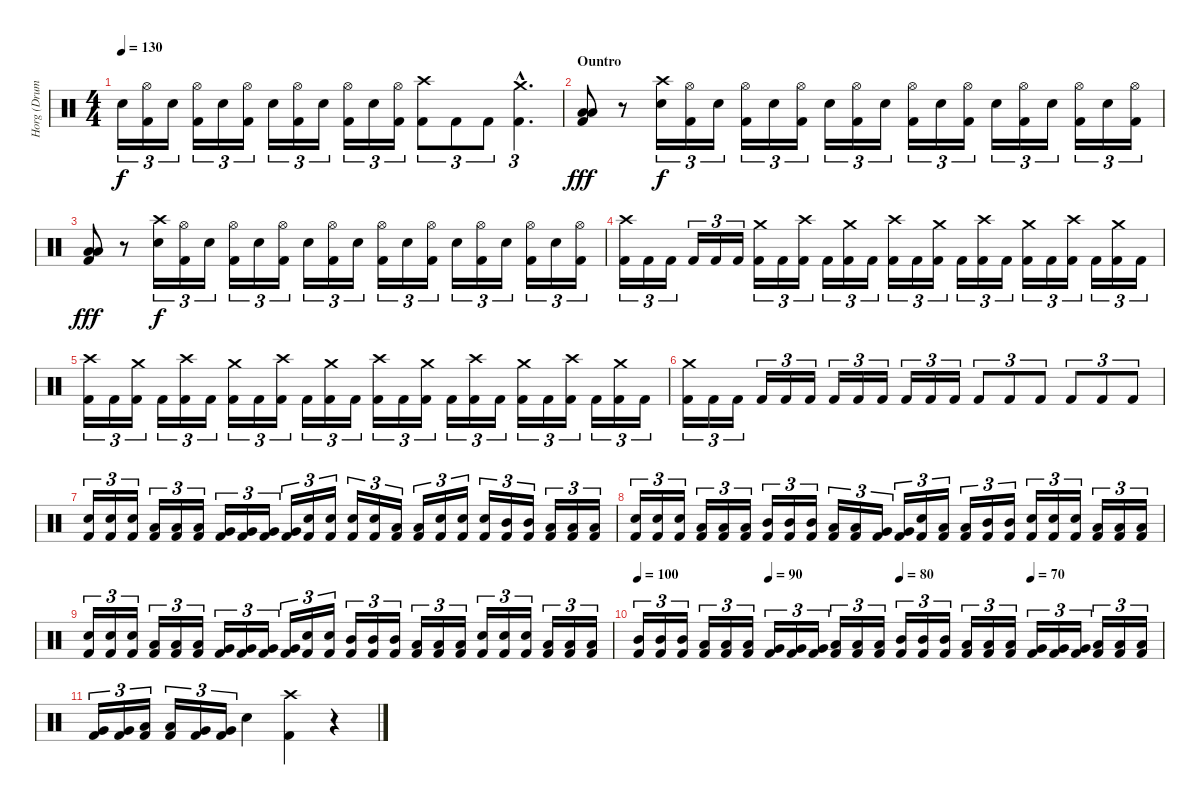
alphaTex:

\track ("Horg (Drums)" "Horg (Drum") {instrument percussion}
\staff {score}
\articulation defaults
\ts (4 4)
\tempo 130
\clef neutral
\ks c "Electric Snare (hit)".16{tu (3 2) dy f}
("Hi-Hat (open)" "Kick (hit) 2").16{tu (3 2)} "Electric Snare (hit)".16{tu (3 2)} ("Hi-Hat (open)" "Kick (hit) 2").16{tu (3 2)} "Electric Snare (hit)".16{tu (3 2)} ("Hi-Hat (open)" "Kick (hit) 2").16{tu (3 2)} "Electric Snare (hit)".16{tu (3 2)} ("Hi-Hat (open)" "Kick (hit) 2").16{tu (3 2)} "Electric Snare (hit)".16{tu (3 2)} ("Hi-Hat (open)" "Kick (hit) 2").16{tu (3 2)} "Electric Snare (hit)".16{tu (3 2)} ("Hi-Hat (open)" "Kick (hit) 2").16{tu (3 2)} ("Crash high (hit)" "Kick (hit) 2").8{tu (3 2)} "Kick (hit) 2".8{tu (3 2)} "Kick (hit) 2".8{tu (3 2)} ("Crash medium (hit)"{hac} "Kick (hit) 2"{hac}).4{d tu (3 2)} |
\section ("" "Ountro")
("Low Floor Tom (hit)" "Low Floor Tom (hit)" "Kick (hit) 2").8{dy fff} r.8 ("Crash high (hit)" "Electric Snare (hit)").16{tu (3 2) dy f} ("Hi-Hat (open)" "Kick (hit) 2").16{tu (3 2)} "Electric Snare (hit)".16{tu (3 2)} ("Hi-Hat (open)" "Kick (hit) 2").16{tu (3 2)} "Electric Snare (hit)".16{tu (3 2)} ("Hi-Hat (open)" "Kick (hit) 2").16{tu (3 2)} "Electric Snare (hit)".16{tu (3 2)} ("Hi-Hat (open)" "Kick (hit) 2").16{tu (3 2)} "Electric Snare (hit)".16{tu (3 2)} ("Hi-Hat (open)" "Kick (hit) 2").16{tu (3 2)} "Electric Snare (hit)".16{tu (3 2)} ("Hi-Hat (open)" "Kick (hit) 2").16{tu (3 2)} "Electric Snare (hit)".16{tu (3 2)} ("Hi-Hat (open)" "Kick (hit) 2").16{tu (3 2)} "Electric Snare (hit)".16{tu (3 2)} ("Hi-Hat (open)" "Kick (hit) 2").16{tu (3 2)} "Electric Snare (hit)".16{tu (3 2)} ("Hi-Hat (open)" "Kick (hit) 2").16{tu (3 2)} |
("Low Floor Tom (hit)" "Low Floor Tom (hit)" "Kick (hit) 2").8{dy fff} r.8 ("Crash high (hit)" "Electric Snare (hit)").16{tu (3 2) dy f} ("Hi-Hat (open)" "Kick (hit) 2").16{tu (3 2)} "Electric Snare (hit)".16{tu (3 2)} ("Hi-Hat (open)" "Kick (hit) 2").16{tu (3 2)} "Electric Snare (hit)".16{tu (3 2)} ("Hi-Hat (open)" "Kick (hit) 2").16{tu (3 2)} "Electric Snare (hit)".16{tu (3 2)} ("Hi-Hat (open)" "Kick (hit) 2").16{tu (3 2)} "Electric Snare (hit)".16{tu (3 2)} ("Hi-Hat (open)" "Kick (hit) 2").16{tu (3 2)} "Electric Snare (hit)".16{tu (3 2)} ("Hi-Hat (open)" "Kick (hit) 2").16{tu (3 2)} "Electric Snare (hit)".16{tu (3 2)} ("Hi-Hat (open)" "Kick (hit) 2").16{tu (3 2)} "Electric Snare (hit)".16{tu (3 2)} ("Hi-Hat (open)" "Kick (hit) 2").16{tu (3 2)} "Electric Snare (hit)".16{tu (3 2)} ("Hi-Hat (open)" "Kick (hit) 2").16{tu (3 2)} |
("Crash high (hit)" "Kick (hit) 2").16{tu (3 2)} "Kick (hit) 2".16{tu (3 2)} "Kick (hit) 2".16{tu (3 2)} "Kick (hit) 2".16{tu (3 2)} "Kick (hit) 2".16{tu (3 2)} "Kick (hit) 2".16{tu (3 2)} ("Crash medium (hit)" "Kick (hit) 2").16{tu (3 2)} "Kick (hit) 2".16{tu (3 2)} ("Crash high (hit)" "Kick (hit) 2").16{tu (3 2)} "Kick (hit) 2".16{tu (3 2)} ("Crash medium (hit)" "Kick (hit) 2").16{tu (3 2)} "Kick (hit) 2".16{tu (3 2)} ("Crash high (hit)" "Kick (hit) 2").16{tu (3 2)} "Kick (hit) 2".16{tu (3 2)} ("Crash medium (hit)" "Kick (hit) 2").16{tu (3 2)} "Kick (hit) 2".16{tu (3 2)} ("Crash high (hit)" "Kick (hit) 2").16{tu (3 2)} "Kick (hit) 2".16{tu (3 2)} ("Crash medium (hit)" "Kick (hit) 2").16{tu (3 2)} "Kick (hit) 2".16{tu (3 2)} ("Crash high (hit)" "Kick (hit) 2").16{tu (3 2)} "Kick (hit) 2".16{tu (3 2)} ("Crash medium (hit)" "Kick (hit) 2").16{tu (3 2)} "Kick (hit) 2".16{tu (3 2)} |
("Crash high (hit)" "Kick (hit) 2").16{tu (3 2)} "Kick (hit) 2".16{tu (3 2)} ("Crash medium (hit)" "Kick (hit) 2").16{tu (3 2)} "Kick (hit) 2".16{tu (3 2)} ("Crash high (hit)" "Kick (hit) 2").16{tu (3 2)} "Kick (hit) 2".16{tu (3 2)} ("Crash medium (hit)" "Kick (hit) 2").16{tu (3 2)} "Kick (hit) 2".16{tu (3 2)} ("Crash high (hit)" "Kick (hit) 2").16{tu (3 2)} "Kick (hit) 2".16{tu (3 2)} ("Crash medium (hit)" "Kick (hit) 2").16{tu (3 2)} "Kick (hit) 2".16{tu (3 2)} ("Crash high (hit)" "Kick (hit) 2").16{tu (3 2)} "Kick (hit) 2".16{tu (3 2)} ("Crash medium (hit)" "Kick (hit) 2").16{tu (3 2)} "Kick (hit) 2".16{tu (3 2)} ("Crash high (hit)" "Kick (hit) 2").16{tu (3 2)} "Kick (hit) 2".16{tu (3 2)} ("Crash medium (hit)" "Kick (hit) 2").16{tu (3 2)} "Kick (hit) 2".16{tu (3 2)} ("Crash high (hit)" "Kick (hit) 2").16{tu (3 2)} "Kick (hit) 2".16{tu (3 2)} ("Crash medium (hit)" "Kick (hit) 2").16{tu (3 2)} "Kick (hit) 2".16{tu (3 2)} |
("Crash medium (hit)" "Kick (hit) 2").16{tu (3 2)} "Kick (hit) 2".16{tu (3 2)} "Kick (hit) 2".16{tu (3 2)} "Kick (hit) 2".16{tu (3 2)} "Kick (hit) 2".16{tu (3 2)} "Kick (hit) 2".16{tu (3 2)} "Kick (hit) 2".16{tu (3 2)} "Kick (hit) 2".16{tu (3 2)} "Kick (hit) 2".16{tu (3 2)} "Kick (hit) 2".16{tu (3 2)} "Kick (hit) 2".16{tu (3 2)} "Kick (hit) 2".16{tu (3 2)} "Kick (hit) 2".8{tu (3 2)} "Kick (hit) 2".8{tu (3 2)} "Kick (hit) 2".8{tu (3 2)} "Kick (hit) 2".8{tu (3 2)} "Kick (hit) 2".8{tu (3 2)} "Kick (hit) 2".8{tu (3 2)} |
("Electric Snare (hit)" "Kick (hit) 2").16{tu (3 2)} ("Electric Snare (hit)" "Kick (hit) 2").16{tu (3 2)} ("Electric Snare (hit)" "Kick (hit) 2").16{tu (3 2)} ("Low Tom (hit)" "Kick (hit) 2").16{tu (3 2)} ("Low Tom (hit)" "Kick (hit) 2").16{tu (3 2)} ("Low Tom (hit)" "Kick (hit) 2").16{tu (3 2)} ("Very Low Tom (hit)" "Kick (hit) 2").16{tu (3 2)} ("Very Low Tom (hit)" "Kick (hit) 2").16{tu (3 2)} ("Very Low Tom (hit)" "Kick (hit) 2").16{tu (3 2)} ("Very Low Tom (hit)" "Kick (hit) 2").16{tu (3 2)} ("Electric Snare (hit)" "Kick (hit) 2").16{tu (3 2)} ("Electric Snare (hit)" "Kick (hit) 2").16{tu (3 2)} ("Electric Snare (hit)" "Kick (hit) 2").16{tu (3 2)} ("Electric Snare (hit)" "Kick (hit) 2").16{tu (3 2)} ("Low Tom (hit)" "Kick (hit) 2").16{tu (3 2)} ("Low Tom (hit)" "Kick (hit) 2").16{tu (3 2)} ("Electric Snare (hit)" "Kick (hit) 2").16{tu (3 2)} ("Electric Snare (hit)" "Kick (hit) 2").16{tu (3 2)} ("Electric Snare (hit)" "Kick (hit) 2").16{tu (3 2)} ("Mid Tom (hit)" "Kick (hit) 2").16{tu (3 2)} ("Mid Tom (hit)" "Kick (hit) 2").16{tu (3 2)} ("Low Tom (hit)" "Kick (hit) 2").16{tu (3 2)} ("Low Tom (hit)" "Kick (hit) 2").16{tu (3 2)} ("Low Tom (hit)" "Kick (hit) 2").16{tu (3 2)} |
("Electric Snare (hit)" "Kick (hit) 2").16{tu (3 2)} ("Electric Snare (hit)" "Kick (hit) 2").16{tu (3 2)} ("Electric Snare (hit)" "Kick (hit) 2").16{tu (3 2)} ("Low Tom (hit)" "Kick (hit) 2").16{tu (3 2)} ("Low Tom (hit)" "Kick (hit) 2").16{tu (3 2)} ("Low Tom (hit)" "Kick (hit) 2").16{tu (3 2)} ("Mid Tom (hit)" "Kick (hit) 2").16{tu (3 2)} ("Mid Tom (hit)" "Kick (hit) 2").16{tu (3 2)} ("Mid Tom (hit)" "Kick (hit) 2").16{tu (3 2)} ("Low Tom (hit)" "Kick (hit) 2").16{tu (3 2)} ("Low Tom (hit)" "Kick (hit) 2").16{tu (3 2)} ("Very Low Tom (hit)" "Kick (hit) 2").16{tu (3 2)} ("Very Low Tom (hit)" "Kick (hit) 2").16{tu (3 2)} ("Electric Snare (hit)" "Kick (hit) 2").16{tu (3 2)} ("Low Tom (hit)" "Kick (hit) 2").16{tu (3 2)} ("Low Tom (hit)" "Kick (hit) 2").16{tu (3 2)} ("Mid Tom (hit)" "Kick (hit) 2").16{tu (3 2)} ("Mid Tom (hit)" "Kick (hit) 2").16{tu (3 2)} ("Electric Snare (hit)" "Kick (hit) 2").16{tu (3 2)} ("Electric Snare (hit)" "Kick (hit) 2").16{tu (3 2)} ("Electric Snare (hit)" "Kick (hit) 2").16{tu (3 2)} ("Low Tom (hit)" "Kick (hit) 2").16{tu (3 2)} ("Low Tom (hit)" "Kick (hit) 2").16{tu (3 2)} ("Low Tom (hit)" "Kick (hit) 2").16{tu (3 2)} |
("Electric Snare (hit)" "Kick (hit) 2").16{tu (3 2)} ("Electric Snare (hit)" "Kick (hit) 2").16{tu (3 2)} ("Electric Snare (hit)" "Kick (hit) 2").16{tu (3 2)} ("Low Tom (hit)" "Kick (hit) 2").16{tu (3 2)} ("Low Tom (hit)" "Kick (hit) 2").16{tu (3 2)} ("Low Tom (hit)" "Kick (hit) 2").16{tu (3 2)} ("Very Low Tom (hit)" "Kick (hit) 2").16{tu (3 2)} ("Very Low Tom (hit)" "Kick (hit) 2").16{tu (3 2)} ("Very Low Tom (hit)" "Kick (hit) 2").16{tu (3 2)} ("Very Low Tom (hit)" "Kick (hit) 2").16{tu (3 2)} ("Electric Snare (hit)" "Kick (hit) 2").16{tu (3 2)} ("Electric Snare (hit)" "Kick (hit) 2").16{tu (3 2)} ("Mid Tom (hit)" "Kick (hit) 2").16{tu (3 2)} ("Mid Tom (hit)" "Kick (hit) 2").16{tu (3 2)} ("Mid Tom (hit)" "Kick (hit) 2").16{tu (3 2)} ("Low Tom (hit)" "Kick (hit) 2").16{tu (3 2)} ("Low Tom (hit)" "Kick (hit) 2").16{tu (3 2)} ("Low Tom (hit)" "Kick (hit) 2").16{tu (3 2)} ("Electric Snare (hit)" "Kick (hit) 2").16{tu (3 2)} ("Electric Snare (hit)" "Kick (hit) 2").16{tu (3 2)} ("Electric Snare (hit)" "Kick (hit) 2").16{tu (3 2)} ("Low Tom (hit)" "Kick (hit) 2").16{tu (3 2)} ("Low Tom (hit)" "Kick (hit) 2").16{tu (3 2)} ("Low Tom (hit)" "Kick (hit) 2").16{tu (3 2)} |
\tempo 100
\tempo (90 0.25)
\tempo (80 0.5)
\tempo (70 0.75)
("Mid Tom (hit)" "Kick (hit) 2").16{tu (3 2)} ("Mid Tom (hit)" "Kick (hit) 2").16{tu (3 2)} ("Mid Tom (hit)" "Kick (hit) 2").16{tu (3 2)} ("Low Tom (hit)" "Kick (hit) 2").16{tu (3 2)} ("Low Tom (hit)" "Kick (hit) 2").16{tu (3 2)} ("Low Tom (hit)" "Kick (hit) 2").16{tu (3 2)} ("Very Low Tom (hit)" "Kick (hit) 2").16{tu (3 2)} ("Very Low Tom (hit)" "Kick (hit) 2").16{tu (3 2)} ("Very Low Tom (hit)" "Kick (hit) 2").16{tu (3 2)} ("Low Tom (hit)" "Kick (hit) 2").16{tu (3 2)} ("Low Tom (hit)" "Kick (hit) 2").16{tu (3 2)} ("Low Tom (hit)" "Kick (hit) 2").16{tu (3 2)} ("Mid Tom (hit)" "Kick (hit) 2").16{tu (3 2)} ("Mid Tom (hit)" "Kick (hit) 2").16{tu (3 2)} ("Mid Tom (hit)" "Kick (hit) 2").16{tu (3 2)} ("Low Floor Tom (hit)" "Kick (hit) 2").16{tu (3 2)} ("Low Floor Tom (hit)" "Kick (hit) 2").16{tu (3 2)} ("Low Floor Tom (hit)" "Kick (hit) 2").16{tu (3 2)} ("Very Low Tom (hit)" "Kick (hit) 2").16{tu (3 2)} ("Very Low Tom (hit)" "Kick (hit) 2").16{tu (3 2)} ("Very Low Tom (hit)" "Kick (hit) 2").16{tu (3 2)} ("Low Tom (hit)" "Kick (hit) 2").16{tu (3 2)} ("Low Tom (hit)" "Kick (hit) 2").16{tu (3 2)} ("Low Tom (hit)" "Kick (hit) 2").16{tu (3 2)} |
("Very Low Tom (hit)" "Kick (hit) 2").16{tu (3 2)} ("Very Low Tom (hit)" "Kick (hit) 2").16{tu (3 2)} ("Low Floor Tom (hit)" "Kick (hit) 2").16{tu (3 2)} ("Low Floor Tom (hit)" "Kick (hit) 2").16{tu (3 2)} ("Very Low Tom (hit)" "Kick (hit) 2").16{tu (3 2)} ("Very Low Tom (hit)" "Kick (hit) 2").16{tu (3 2)} "Electric Snare (hit)".4 ("Crash high (hit)" "Kick (hit) 2").4 r.4
